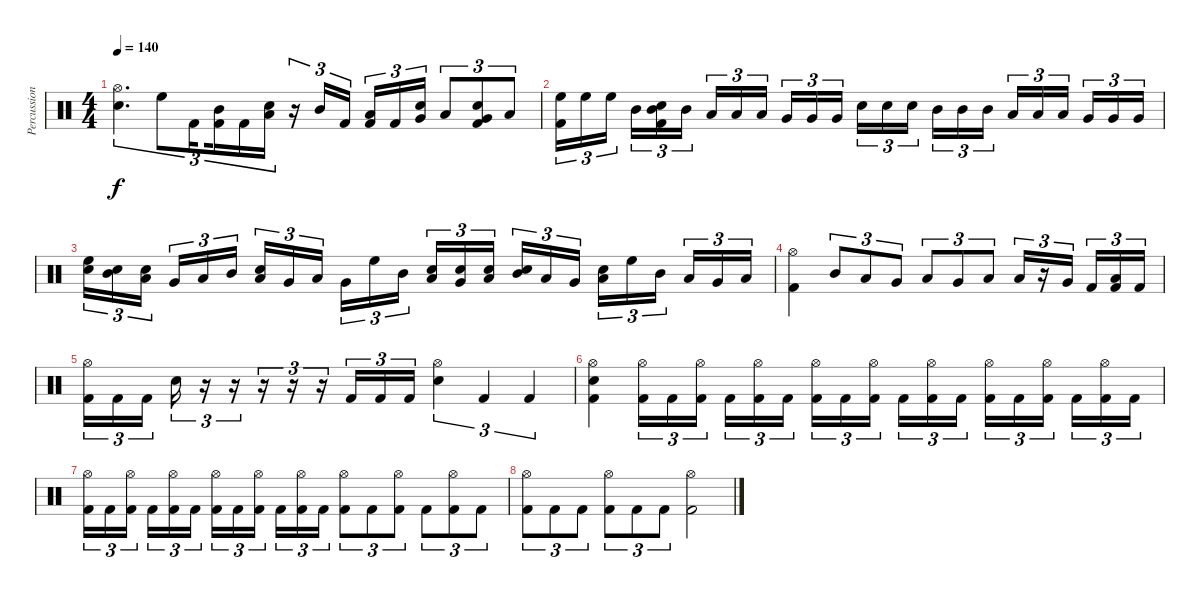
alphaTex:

\track ("Percussion" "Percussion") {instrument percussion}
\staff {score}
\articulation defaults
\ts (4 4)
\tempo 140
\clef neutral
\ks c
("Hi-Hat (open)" "Snare (hit) 2").4{d tu (3 2) dy f} "High Floor Tom (hit)".8{tu (3 2)} "Kick (hit) 2".16{tu (3 2) beam splitsecondary} ("Mid Tom (hit)" "Kick (hit) 2").16{tu (3 2)} "Kick (hit) 2".16{tu (3 2)} ("Low Tom (hit)" "Snare (hit) 2").16{tu (3 2)} r.16{tu (3 2)} "Mid Tom (hit)".16{tu (3 2)} "Kick (hit) 2".16{tu (3 2) beam splitsecondary} ("Low Tom (hit)" "Kick (hit) 2").16{tu (3 2)} "Kick (hit) 2".16{tu (3 2)} ("Very Low Tom (hit)" "Snare (hit) 2").16{tu (3 2)} "Low Tom (hit)".8{tu (3 2)} ("Very Low Tom (hit)" "Snare (hit) 2" "Kick (hit) 2").8{tu (3 2)} "Low Floor Tom (hit)".8{tu (3 2)} |
("High Floor Tom (hit)" "Kick (hit) 2").16{tu (3 2)} "High Floor Tom (hit)".16{tu (3 2)} "High Floor Tom (hit)".16{tu (3 2) beam splitsecondary} "Mid Tom (hit)".16{tu (3 2)} ("Mid Tom (hit)" "Snare (hit) 2" "Kick (hit) 2").16{tu (3 2)} "Mid Tom (hit)".16{tu (3 2)} "Low Tom (hit)".16{tu (3 2)} "Low Tom (hit)".16{tu (3 2)} "Low Tom (hit)".16{tu (3 2) beam splitsecondary} "Very Low Tom (hit)".16{tu (3 2)} "Very Low Tom (hit)".16{tu (3 2)} "Very Low Tom (hit)".16{tu (3 2)} "Snare (hit) 2".16{tu (3 2)} "Snare (hit) 2".16{tu (3 2)} "Snare (hit) 2".16{tu (3 2) beam splitsecondary} "Mid Tom (hit)".16{tu (3 2)} "Mid Tom (hit)".16{tu (3 2)} "Mid Tom (hit)".16{tu (3 2)} "Low Tom (hit)".16{tu (3 2)} "Low Tom (hit)".16{tu (3 2)} "Low Tom (hit)".16{tu (3 2) beam splitsecondary} "Very Low Tom (hit)".16{tu (3 2)} "Very Low Tom (hit)".16{tu (3 2)} "Very Low Tom (hit)".16{tu (3 2)} |
("High Floor Tom (hit)" "Snare (hit) 2").16{tu (3 2)} ("Mid Tom (hit)" "Snare (hit) 2").16{tu (3 2)} ("Low Tom (hit)" "Snare (hit) 2").16{tu (3 2) beam splitsecondary} "Very Low Tom (hit)".16{tu (3 2)} "Low Floor Tom (hit)".16{tu (3 2)} "Mid Tom (hit)".16{tu (3 2)} ("Low Tom (hit)" "Snare (hit) 2").16{tu (3 2)} "Very Low Tom (hit)".16{tu (3 2)} "Low Floor Tom (hit)".16{tu (3 2) beam splitsecondary} "Very Low Tom (hit)".16{tu (3 2)} "High Floor Tom (hit)".16{tu (3 2)} "Mid Tom (hit)".16{tu (3 2)} ("Low Tom (hit)" "Snare (hit) 2").16{tu (3 2)} ("Very Low Tom (hit)" "Snare (hit) 2").16{tu (3 2)} ("Low Floor Tom (hit)" "Snare (hit) 2").16{tu (3 2) beam splitsecondary} ("Mid Tom (hit)" "Snare (hit) 2").16{tu (3 2)} "Low Tom (hit)".16{tu (3 2)} "Very Low Tom (hit)".16{tu (3 2)} ("Low Floor Tom (hit)" "Snare (hit) 2").16{tu (3 2)} "High Floor Tom (hit)".16{tu (3 2)} "Mid Tom (hit)".16{tu (3 2) beam splitsecondary} "Low Tom (hit)".16{tu (3 2)} "Very Low Tom (hit)".16{tu (3 2)} "Low Floor Tom (hit)".16{tu (3 2)} |
("Hi-Hat (open)" "Kick (hit) 2").4 "Mid Tom (hit)".8{tu (3 2)} "Low Tom (hit)".8{tu (3 2)} "Very Low Tom (hit)".8{tu (3 2)} "Low Tom (hit)".8{tu (3 2)} "Very Low Tom (hit)".8{tu (3 2)} "Low Floor Tom (hit)".8{tu (3 2)} "Low Tom (hit)".16{tu (3 2)} r.16{tu (3 2)} "Very Low Tom (hit)".16{tu (3 2) beam splitsecondary} "Kick (hit) 2".16{tu (3 2)} ("Low Floor Tom (hit)" "Kick (hit) 2").16{tu (3 2)} "Kick (hit) 2".16{tu (3 2)} |
("Hi-Hat (open)" "Kick (hit) 2").16{tu (3 2)} "Kick (hit) 2".16{tu (3 2)} "Kick (hit) 2".16{tu (3 2) beam splitsecondary} "Snare (hit) 2".16{tu (3 2)} r.16{tu (3 2)} r.16{tu (3 2)} r.16{tu (3 2)} r.16{tu (3 2)} r.16{tu (3 2)} "Kick (hit) 2".16{tu (3 2)} "Kick (hit) 2".16{tu (3 2)} "Kick (hit) 2".16{tu (3 2)} ("Hi-Hat (open)" "Snare (hit) 2").4{tu (3 2)} "Kick (hit) 2".4{tu (3 2)} "Kick (hit) 2".4{tu (3 2)} |
("Hi-Hat (open)" "Snare (hit) 2" "Kick (hit) 2").4 ("Hi-Hat (open)" "Kick (hit) 2").16{tu (3 2)} "Kick (hit) 2".16{tu (3 2)} ("Hi-Hat (open)" "Kick (hit) 2").16{tu (3 2) beam splitsecondary} "Kick (hit) 2".16{tu (3 2)} ("Hi-Hat (open)" "Kick (hit) 2").16{tu (3 2)} "Kick (hit) 2".16{tu (3 2)} ("Hi-Hat (open)" "Kick (hit) 2").16{tu (3 2)} "Kick (hit) 2".16{tu (3 2)} ("Hi-Hat (open)" "Kick (hit) 2").16{tu (3 2) beam splitsecondary} "Kick (hit) 2".16{tu (3 2)} ("Hi-Hat (open)" "Kick (hit) 2").16{tu (3 2)} "Kick (hit) 2".16{tu (3 2)} ("Hi-Hat (open)" "Kick (hit) 2").16{tu (3 2)} "Kick (hit) 2".16{tu (3 2)} ("Hi-Hat (open)" "Kick (hit) 2").16{tu (3 2) beam splitsecondary} "Kick (hit) 2".16{tu (3 2)} ("Hi-Hat (open)" "Kick (hit) 2").16{tu (3 2)} "Kick (hit) 2".16{tu (3 2)} |
("Hi-Hat (open)" "Kick (hit) 2").16{tu (3 2)} "Kick (hit) 2".16{tu (3 2)} ("Hi-Hat (open)" "Kick (hit) 2").16{tu (3 2) beam splitsecondary} "Kick (hit) 2".16{tu (3 2)} ("Hi-Hat (open)" "Kick (hit) 2").16{tu (3 2)} "Kick (hit) 2".16{tu (3 2)} ("Hi-Hat (open)" "Kick (hit) 2").16{tu (3 2)} "Kick (hit) 2".16{tu (3 2)} ("Hi-Hat (open)" "Kick (hit) 2").16{tu (3 2) beam splitsecondary} "Kick (hit) 2".16{tu (3 2)} ("Hi-Hat (open)" "Kick (hit) 2").16{tu (3 2)} "Kick (hit) 2".16{tu (3 2)} ("Hi-Hat (open)" "Kick (hit) 2").8{tu (3 2)} "Kick (hit) 2".8{tu (3 2)} ("Hi-Hat (open)" "Kick (hit) 2").8{tu (3 2)} "Kick (hit) 2".8{tu (3 2)} ("Hi-Hat (open)" "Kick (hit) 2").8{tu (3 2)} "Kick (hit) 2".8{tu (3 2)} |
("Hi-Hat (open)" "Kick (hit) 2").8{tu (3 2)} "Kick (hit) 2".8{tu (3 2)} "Kick (hit) 2".8{tu (3 2)} ("Hi-Hat (open)" "Kick (hit) 2").8{tu (3 2)} "Kick (hit) 2".8{tu (3 2)} "Kick (hit) 2".8{tu (3 2)} ("Hi-Hat (open)" "Kick (hit) 2").2
